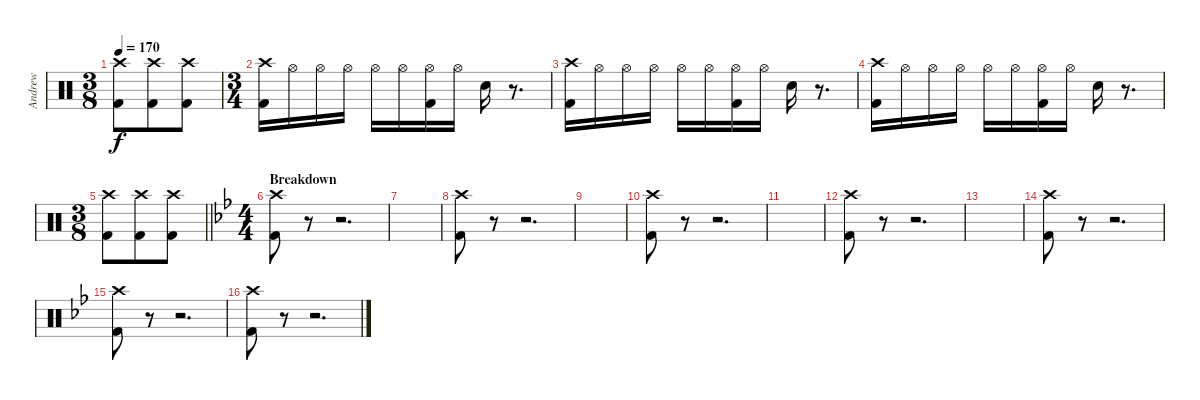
\track ("Andrew" "Andrew") {instrument percussion}
\staff {score}
\articulation defaults
\ts (3 8)
\tempo 170
\clef neutral
\ks c
("Crash high (hit)" "Kick (hit) 2").8{dy f} ("Crash high (hit)" "Kick (hit) 2").8 ("Crash high (hit)" "Kick (hit) 2").8 |
\ts (3 4)
("Kick (hit) 2" "Crash high (hit)").16 "Hi-Hat (open)".16 "Hi-Hat (open)".16 "Hi-Hat (open)".16 "Hi-Hat (open)".16 "Hi-Hat (open)".16 ("Hi-Hat (open)" "Kick (hit) 2").16 "Hi-Hat (open)".16 "Electric Snare (hit)".16 r.8{d} |
("Kick (hit) 2" "Crash high (hit)").16 "Hi-Hat (open)".16 "Hi-Hat (open)".16 "Hi-Hat (open)".16 "Hi-Hat (open)".16 "Hi-Hat (open)".16 ("Hi-Hat (open)" "Kick (hit) 2").16 "Hi-Hat (open)".16 "Electric Snare (hit)".16 r.8{d} |
("Kick (hit) 2" "Crash high (hit)").16 "Hi-Hat (open)".16 "Hi-Hat (open)".16 "Hi-Hat (open)".16 "Hi-Hat (open)".16 "Hi-Hat (open)".16 ("Hi-Hat (open)" "Kick (hit) 2").16 "Hi-Hat (open)".16 "Electric Snare (hit)".16 r.8{d} |
\ts (3 8)
\barLineRight lightlight
("Crash high (hit)" "Kick (hit) 2").8 ("Crash high (hit)" "Kick (hit) 2").8 ("Crash high (hit)" "Kick (hit) 2").8 |
\ts (4 4)
\section ("" "Breakdown")
\ks bb
("Crash high (hit)" "Kick (hit) 2").8 r.8 r.2{d} |
|
("Crash high (hit)" "Kick (hit) 2").8 r.8 r.2{d} |
|
("Crash high (hit)" "Kick (hit) 2").8 r.8 r.2{d} |
|
("Crash high (hit)" "Kick (hit) 2").8 r.8 r.2{d} |
|
("Crash high (hit)" "Kick (hit) 2").8 r.8 r.2{d} |
("Crash high (hit)" "Kick (hit) 2").8 r.8 r.2{d} |
("Crash high (hit)" "Kick (hit) 2").8 r.8 r.2{d}
